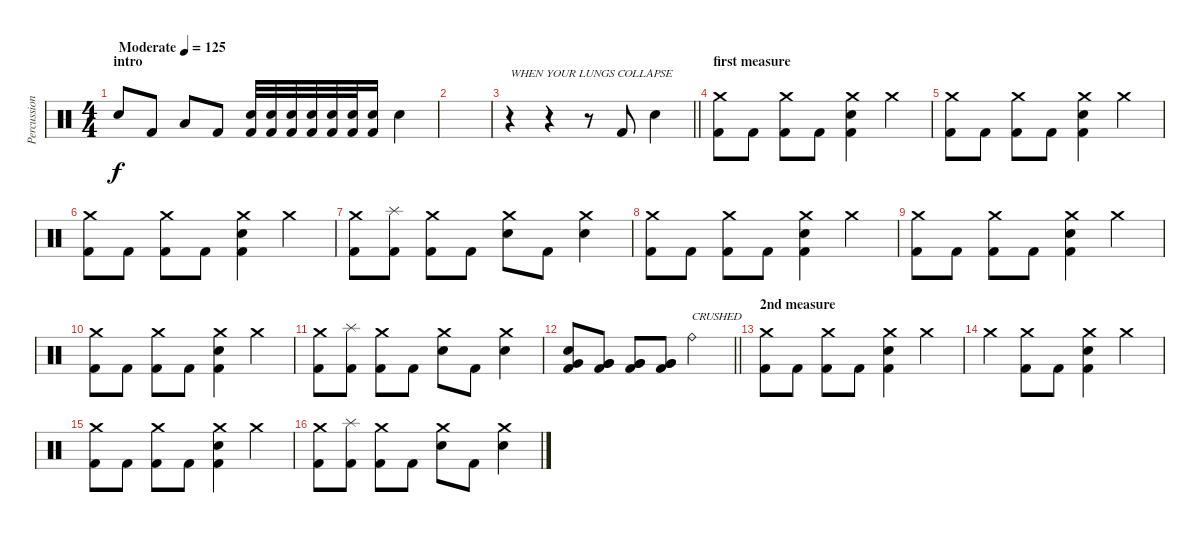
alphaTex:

\track ("Percussion" "Percussion") {instrument percussion}
\staff {score}
\articulation defaults
\ts (4 4)
\section ("" "intro")
\tempo (125 "Moderate")
\clef neutral
\ks c "Electric Snare (hit)".8{dy f} "Kick (hit) 2".8 "Low Tom (hit)".8 "Kick (hit) 2".8
("Electric Snare (hit)" "Kick (hit) 2").32 ("Electric Snare (hit)" "Kick (hit) 2").32 ("Electric Snare (hit)" "Kick (hit) 2").32 ("Electric Snare (hit)" "Kick (hit) 2").32 ("Electric Snare (hit)" "Kick (hit) 2").32 ("Electric Snare (hit)" "Kick (hit) 2").32 ("Electric Snare (hit)" "Kick (hit) 2").16 "Electric Snare (hit)".4 |
|
\barLineRight lightlight
r.4{txt "WHEN YOUR LUNGS COLLAPSE"} r.4 r.8 "Kick (hit) 2".8 "Electric Snare (hit)".4 |
\section ("" "first measure")
("Crash medium (hit)" "Kick (hit) 2").8 "Kick (hit) 2".8 ("Crash medium (hit)" "Kick (hit) 2").8 "Kick (hit) 2".8 ("Crash medium (hit)" "Electric Snare (hit)" "Kick (hit) 2").4 "Crash medium (hit)".4 |
("Crash medium (hit)" "Kick (hit) 2").8 "Kick (hit) 2".8 ("Crash medium (hit)" "Kick (hit) 2").8 "Kick (hit) 2".8 ("Crash medium (hit)" "Electric Snare (hit)" "Kick (hit) 2").4 "Crash medium (hit)".4 |
("Crash medium (hit)" "Kick (hit) 2").8 "Kick (hit) 2".8 ("Crash medium (hit)" "Kick (hit) 2").8 "Kick (hit) 2".8 ("Crash medium (hit)" "Electric Snare (hit)" "Kick (hit) 2").4 "Crash medium (hit)".4 |
("Crash medium (hit)" "Kick (hit) 2").8 ("Splash (hit)" "Kick (hit) 2").8 ("Crash medium (hit)" "Kick (hit) 2").8 "Kick (hit) 2".8 ("Crash medium (hit)" "Electric Snare (hit)").8 "Kick (hit) 2".8 ("Crash medium (hit)" "Electric Snare (hit)").4 |
("Crash medium (hit)" "Kick (hit) 2").8 "Kick (hit) 2".8 ("Crash medium (hit)" "Kick (hit) 2").8 "Kick (hit) 2".8 ("Crash medium (hit)" "Electric Snare (hit)" "Kick (hit) 2").4 "Crash medium (hit)".4 |
("Crash medium (hit)" "Kick (hit) 2").8 "Kick (hit) 2".8 ("Crash medium (hit)" "Kick (hit) 2").8 "Kick (hit) 2".8 ("Crash medium (hit)" "Electric Snare (hit)" "Kick (hit) 2").4 "Crash medium (hit)".4 |
("Crash medium (hit)" "Kick (hit) 2").8 "Kick (hit) 2".8 ("Crash medium (hit)" "Kick (hit) 2").8 "Kick (hit) 2".8 ("Crash medium (hit)" "Electric Snare (hit)" "Kick (hit) 2").4 "Crash medium (hit)".4 |
("Crash medium (hit)" "Kick (hit) 2").8 ("Splash (hit)" "Kick (hit) 2").8 ("Crash medium (hit)" "Kick (hit) 2").8 "Kick (hit) 2".8 ("Crash medium (hit)" "Electric Snare (hit)").8 "Kick (hit) 2".8 ("Crash medium (hit)" "Electric Snare (hit)").4 |
\barLineRight lightlight
("Electric Snare (hit)" "Very Low Tom (hit)" "Kick (hit) 2").8 ("Very Low Tom (hit)" "Very Low Tom (hit)" "Kick (hit) 2").8 ("Very Low Tom (hit)" "Very Low Tom (hit)" "Kick (hit) 2").8 ("Very Low Tom (hit)" "Very Low Tom (hit)" "Kick (hit) 2").8 "Ride (bell)".2{txt "CRUSHED"} |
\section ("" "2nd measure")
("Crash medium (hit)" "Kick (hit) 2").8 "Kick (hit) 2".8 ("Crash medium (hit)" "Kick (hit) 2").8 "Kick (hit) 2".8 ("Crash medium (hit)" "Electric Snare (hit)" "Kick (hit) 2").4 "Crash medium (hit)".4 |
"Crash medium (hit)".4 ("Crash medium (hit)" "Kick (hit) 2").8 "Kick (hit) 2".8 ("Crash medium (hit)" "Electric Snare (hit)" "Kick (hit) 2").4 "Crash medium (hit)".4 |
("Crash medium (hit)" "Kick (hit) 2").8 "Kick (hit) 2".8 ("Crash medium (hit)" "Kick (hit) 2").8 "Kick (hit) 2".8 ("Crash medium (hit)" "Electric Snare (hit)" "Kick (hit) 2").4 "Crash medium (hit)".4 |
("Crash medium (hit)" "Kick (hit) 2").8 ("Splash (hit)" "Kick (hit) 2").8 ("Crash medium (hit)" "Kick (hit) 2").8 "Kick (hit) 2".8 ("Crash medium (hit)" "Electric Snare (hit)").8 "Kick (hit) 2".8 ("Crash medium (hit)" "Electric Snare (hit)").4
